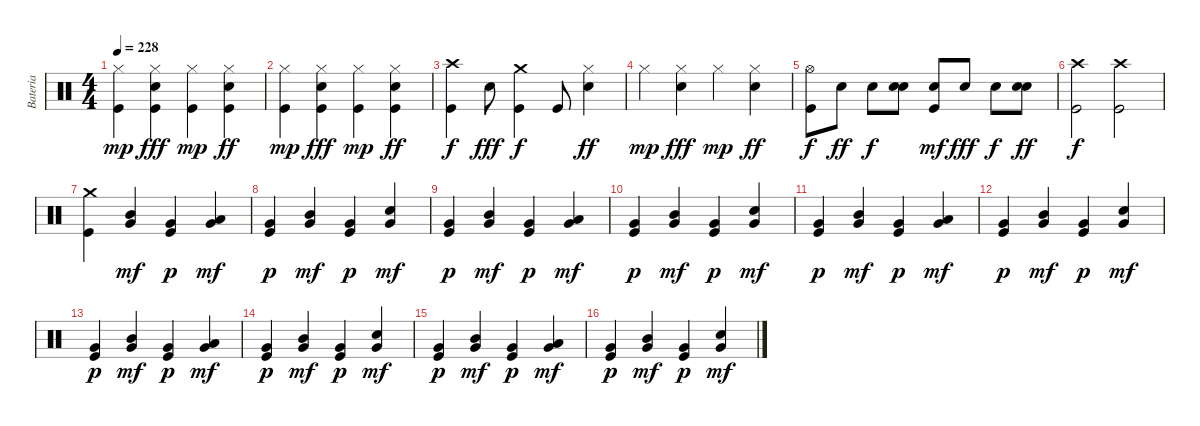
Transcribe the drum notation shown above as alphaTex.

\track ("Bateria" "Bateria") {instrument percussion}
\staff {score}
\articulation defaults
\ts (4 4)
\tempo 228
\clef neutral
\ks c
("Hi-Hat (closed)" "Kick (hit)").4{dy mp} ("Hi-Hat (closed)" "Kick (hit)" "Electric Snare (hit)").4{dy fff} ("Hi-Hat (closed)" "Kick (hit)").4{dy mp} ("Hi-Hat (closed)" "Kick (hit)" "Electric Snare (hit)").4{dy ff} |
("Hi-Hat (closed)" "Kick (hit)").4{dy mp} ("Hi-Hat (closed)" "Kick (hit)" "Electric Snare (hit)").4{dy fff} ("Hi-Hat (closed)" "Kick (hit)").4{dy mp} ("Hi-Hat (closed)" "Kick (hit)" "Electric Snare (hit)").4{dy ff} |
("Crash high (hit)" "Kick (hit)").4{dy f} "Electric Snare (hit)".8{dy fff} ("Crash medium (hit)" "Kick (hit)").4{dy f} "Kick (hit)".8 ("Hi-Hat (closed)" "Electric Snare (hit)").4{dy ff} |
"Hi-Hat (closed)".4{dy mp} ("Hi-Hat (closed)" "Electric Snare (hit)").4{dy fff} "Hi-Hat (closed)".4{dy mp} ("Hi-Hat (closed)" "Electric Snare (hit)").4{dy ff} |
("Hi-Hat (open)" "Kick (hit)").8{dy f} "Electric Snare (hit)".8{dy ff} "Electric Snare (hit)".8{dy f} ("Electric Snare (hit)" "Electric Snare (hit)").8 ("Electric Snare (hit)" "Kick (hit)").8{dy mf} "Electric Snare (hit)".8{dy fff} "Electric Snare (hit)".8{dy f} ("Electric Snare (hit)" "Electric Snare (hit)").8{dy ff} |
("Crash high (hit)" "Kick (hit)").2{dy f} ("Crash high (hit)" "Kick (hit)").2 |
("Crash medium (hit)" "Kick (hit)").4 ("Mid Tom (hit)" "Very Low Tom (hit)").4{dy mf} ("Kick (hit)" "Very Low Tom (hit)").4{dy p} ("Low Tom (hit)" "Very Low Tom (hit)").4{dy mf} |
("Kick (hit)" "Very Low Tom (hit)").4{dy p} ("Mid Tom (hit)" "Very Low Tom (hit)").4{dy mf} ("Kick (hit)" "Very Low Tom (hit)").4{dy p} ("Electric Snare (hit)" "Very Low Tom (hit)").4{dy mf} |
("Kick (hit)" "Very Low Tom (hit)").4{dy p} ("Mid Tom (hit)" "Very Low Tom (hit)").4{dy mf} ("Kick (hit)" "Very Low Tom (hit)").4{dy p} ("Low Tom (hit)" "Very Low Tom (hit)").4{dy mf} |
("Kick (hit)" "Very Low Tom (hit)").4{dy p} ("Mid Tom (hit)" "Very Low Tom (hit)").4{dy mf} ("Kick (hit)" "Very Low Tom (hit)").4{dy p} ("Electric Snare (hit)" "Very Low Tom (hit)").4{dy mf} |
("Kick (hit)" "Very Low Tom (hit)").4{dy p} ("Mid Tom (hit)" "Very Low Tom (hit)").4{dy mf} ("Kick (hit)" "Very Low Tom (hit)").4{dy p} ("Low Tom (hit)" "Very Low Tom (hit)").4{dy mf} |
("Kick (hit)" "Very Low Tom (hit)").4{dy p} ("Mid Tom (hit)" "Very Low Tom (hit)").4{dy mf} ("Kick (hit)" "Very Low Tom (hit)").4{dy p} ("Electric Snare (hit)" "Very Low Tom (hit)").4{dy mf} |
("Kick (hit)" "Very Low Tom (hit)").4{dy p} ("Mid Tom (hit)" "Very Low Tom (hit)").4{dy mf} ("Kick (hit)" "Very Low Tom (hit)").4{dy p} ("Low Tom (hit)" "Very Low Tom (hit)").4{dy mf} |
("Kick (hit)" "Very Low Tom (hit)").4{dy p} ("Mid Tom (hit)" "Very Low Tom (hit)").4{dy mf} ("Kick (hit)" "Very Low Tom (hit)").4{dy p} ("Electric Snare (hit)" "Very Low Tom (hit)").4{dy mf} |
("Kick (hit)" "Very Low Tom (hit)").4{dy p} ("Mid Tom (hit)" "Very Low Tom (hit)").4{dy mf} ("Kick (hit)" "Very Low Tom (hit)").4{dy p} ("Low Tom (hit)" "Very Low Tom (hit)").4{dy mf} |
("Kick (hit)" "Very Low Tom (hit)").4{dy p} ("Mid Tom (hit)" "Very Low Tom (hit)").4{dy mf} ("Kick (hit)" "Very Low Tom (hit)").4{dy p} ("Electric Snare (hit)" "Very Low Tom (hit)").4{dy mf}
